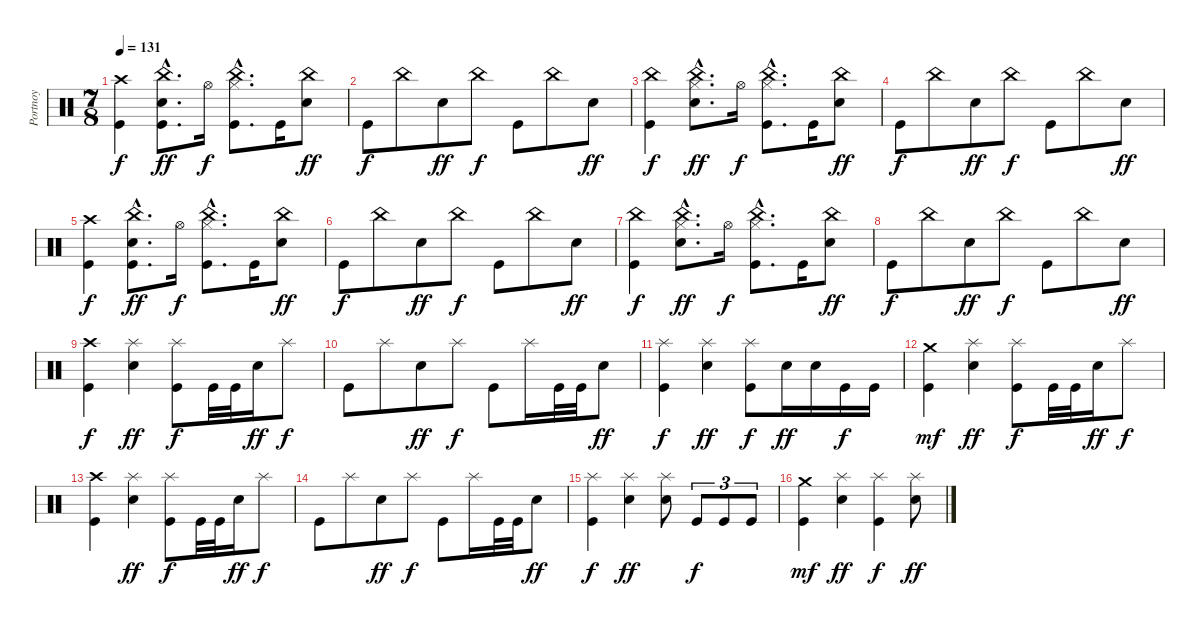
\track ("Portnoy" "Portnoy") {instrument percussion}
\staff {score}
\articulation defaults
\ts (7 8)
\tempo 131
\clef neutral
\ks c
("Crash high (hit)" "Kick (hit)").4{dy f} ("China (hit)"{hac} "Electric Snare (hit)"{hac} "Kick (hit)"{hac}).8{d dy ff} "Hi-Hat (open)".16{dy f} ("China (hit)"{hac} "Hi-Hat (closed)"{hac} "Kick (hit)"{hac}).8{d} "Kick (hit)".16 ("China (hit)" "Electric Snare (hit)").8{dy ff} |
"Kick (hit)".8{dy f} "China (hit)".8 "Electric Snare (hit)".8{dy ff} "China (hit)".8{dy f} "Kick (hit)".8 "China (hit)".8 "Electric Snare (hit)".8{dy ff} |
("China (hit)" "Kick (hit)").4{dy f} ("China (hit)"{hac} "Hi-Hat (closed)"{hac} "Electric Snare (hit)"{hac}).8{d dy ff} "Hi-Hat (open)".16{dy f} ("China (hit)"{hac} "Hi-Hat (closed)"{hac} "Kick (hit)"{hac}).8{d} "Kick (hit)".16 ("China (hit)" "Electric Snare (hit)").8{dy ff} |
"Kick (hit)".8{dy f} "China (hit)".8 "Electric Snare (hit)".8{dy ff} "China (hit)".8{dy f} "Kick (hit)".8 "China (hit)".8 "Electric Snare (hit)".8{dy ff} |
("Crash high (hit)" "Kick (hit)").4{dy f} ("China (hit)"{hac} "Electric Snare (hit)"{hac} "Kick (hit)"{hac}).8{d dy ff} "Hi-Hat (open)".16{dy f} ("China (hit)"{hac} "Hi-Hat (closed)"{hac} "Kick (hit)"{hac}).8{d} "Kick (hit)".16 ("China (hit)" "Electric Snare (hit)").8{dy ff} |
"Kick (hit)".8{dy f} "China (hit)".8 "Electric Snare (hit)".8{dy ff} "China (hit)".8{dy f} "Kick (hit)".8 "China (hit)".8 "Electric Snare (hit)".8{dy ff} |
("China (hit)" "Kick (hit)").4{dy f} ("China (hit)"{hac} "Hi-Hat (closed)"{hac} "Electric Snare (hit)"{hac}).8{d dy ff} "Hi-Hat (open)".16{dy f} ("China (hit)"{hac} "Hi-Hat (closed)"{hac} "Kick (hit)"{hac}).8{d} "Kick (hit)".16 ("China (hit)" "Electric Snare (hit)").8{dy ff} |
"Kick (hit)".8{dy f} "China (hit)".8 "Electric Snare (hit)".8{dy ff} "China (hit)".8{dy f} "Kick (hit)".8 "China (hit)".8 "Electric Snare (hit)".8{dy ff} |
("Crash high (hit)" "Kick (hit)").4{dy f} ("Splash (hit)" "Electric Snare (hit)").4{dy ff} ("Splash (hit)" "Kick (hit)").8{dy f} "Kick (hit)".32 "Kick (hit)".32 "Electric Snare (hit)".16{dy ff} "Splash (hit)".8{dy f} |
"Kick (hit)".8 "Splash (hit)".8 "Electric Snare (hit)".8{dy ff} "Splash (hit)".8{dy f} "Kick (hit)".8 "Splash (hit)".16 "Kick (hit)".32 "Kick (hit)".32 "Electric Snare (hit)".8{dy ff} |
("Splash (hit)" "Kick (hit)").4{dy f} ("Splash (hit)" "Electric Snare (hit)").4{dy ff} ("Splash (hit)" "Kick (hit)").8{dy f} "Electric Snare (hit)".16{dy ff} "Electric Snare (hit)".16 "Kick (hit)".16{dy f} "Kick (hit)".16 |
("Crash medium (hit)" "Kick (hit)").4{dy mf} ("Splash (hit)" "Electric Snare (hit)").4{dy ff} ("Splash (hit)" "Kick (hit)").8{dy f} "Kick (hit)".32 "Kick (hit)".32 "Electric Snare (hit)".16{dy ff} "Splash (hit)".8{dy f} |
("Crash high (hit)" "Kick (hit)").4 ("Splash (hit)" "Electric Snare (hit)").4{dy ff} ("Splash (hit)" "Kick (hit)").8{dy f} "Kick (hit)".32 "Kick (hit)".32 "Electric Snare (hit)".16{dy ff} "Splash (hit)".8{dy f} |
"Kick (hit)".8 "Splash (hit)".8 "Electric Snare (hit)".8{dy ff} "Splash (hit)".8{dy f} "Kick (hit)".8 "Splash (hit)".16 "Kick (hit)".32 "Kick (hit)".32 "Electric Snare (hit)".8{dy ff} |
("Splash (hit)" "Kick (hit)").4{dy f} ("Splash (hit)" "Electric Snare (hit)").4{dy ff} ("Splash (hit)" "Electric Snare (hit)").8 "Kick (hit)".8{tu (3 2) dy f} "Kick (hit)".8{tu (3 2)} "Kick (hit)".8{tu (3 2)} |
("Crash medium (hit)" "Kick (hit)").4{dy mf} ("Splash (hit)" "Electric Snare (hit)").4{dy ff} ("Splash (hit)" "Kick (hit)").4{dy f} ("Splash (hit)" "Electric Snare (hit)").8{dy ff}
